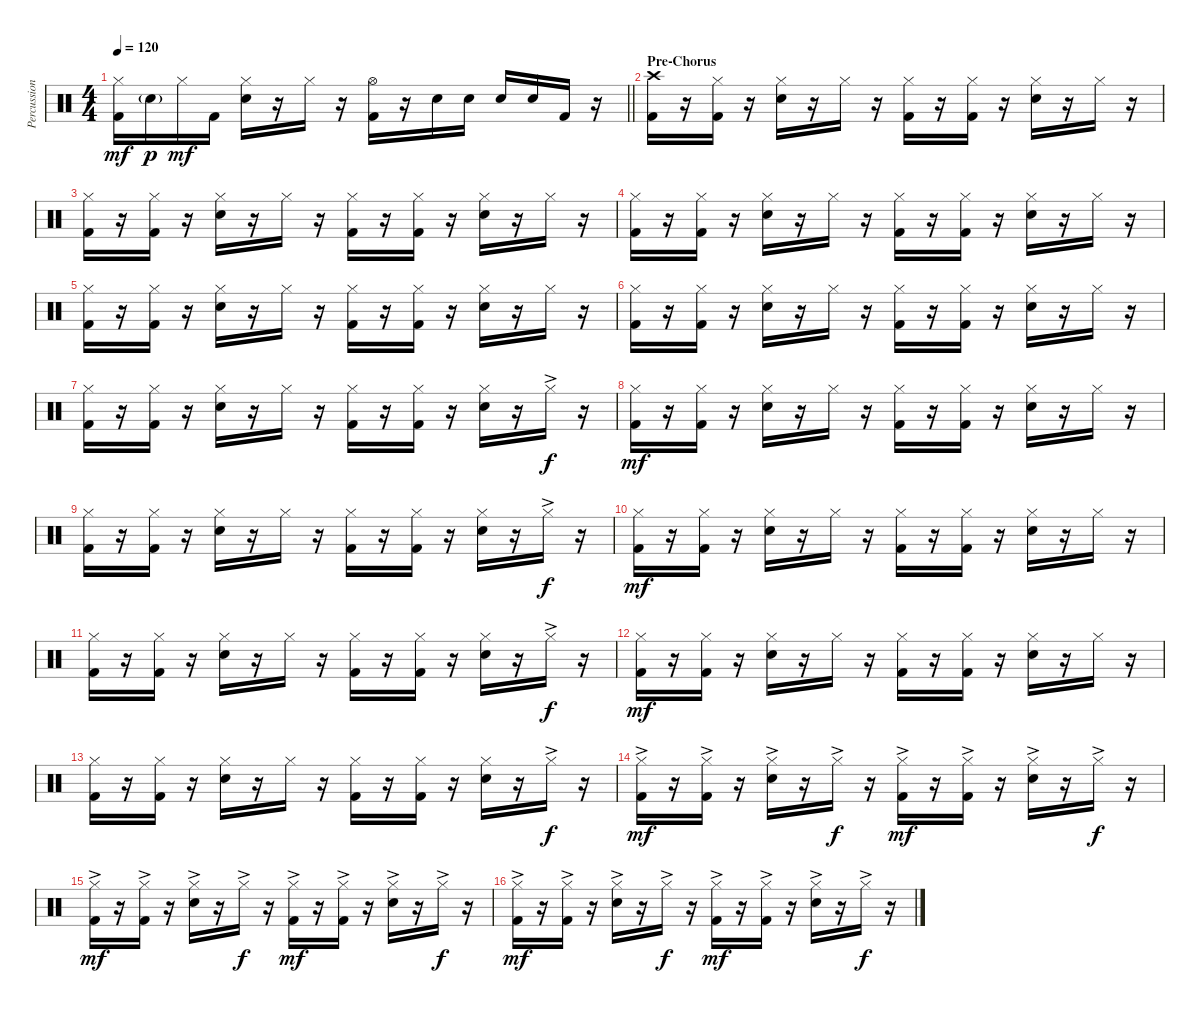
\track ("Percussion" "Percussion") {instrument percussion}
\staff {score}
\articulation defaults
\ts (4 4)
\tempo 120
\clef neutral
\barLineRight lightlight
\ks c
("Hi-Hat (closed)" "Kick (hit) 2").16{dy mf} "Electric Snare (hit)"{g}.16{dy p} "Hi-Hat (closed)".16{dy mf} "Kick (hit) 2".16 ("Hi-Hat (closed)" "Electric Snare (hit)").16 r.16 "Hi-Hat (closed)".16 r.16 ("Hi-Hat (open)" "Kick (hit) 2").16 r.16 "Electric Snare (hit)".16 "Electric Snare (hit)".16 "Electric Snare (hit)".16 "Electric Snare (hit)".16 "Kick (hit) 2".16 r.16 |
\section ("" "Pre-Chorus")
("Crash high (hit)" "Kick (hit) 2").16 r.16 ("Hi-Hat (closed)" "Kick (hit) 2").16 r.16 ("Hi-Hat (closed)" "Electric Snare (hit)").16 r.16 "Hi-Hat (closed)".16 r.16 ("Hi-Hat (closed)" "Kick (hit) 2").16 r.16 ("Hi-Hat (closed)" "Kick (hit) 2").16 r.16 ("Hi-Hat (closed)" "Electric Snare (hit)").16 r.16 "Hi-Hat (closed)".16 r.16 |
("Hi-Hat (closed)" "Kick (hit) 2").16 r.16 ("Hi-Hat (closed)" "Kick (hit) 2").16 r.16 ("Hi-Hat (closed)" "Electric Snare (hit)").16 r.16 "Hi-Hat (closed)".16 r.16 ("Hi-Hat (closed)" "Kick (hit) 2").16 r.16 ("Hi-Hat (closed)" "Kick (hit) 2").16 r.16 ("Hi-Hat (closed)" "Electric Snare (hit)").16 r.16 "Hi-Hat (closed)".16 r.16 |
("Hi-Hat (closed)" "Kick (hit) 2").16 r.16 ("Hi-Hat (closed)" "Kick (hit) 2").16 r.16 ("Hi-Hat (closed)" "Electric Snare (hit)").16 r.16 "Hi-Hat (closed)".16 r.16 ("Hi-Hat (closed)" "Kick (hit) 2").16 r.16 ("Hi-Hat (closed)" "Kick (hit) 2").16 r.16 ("Hi-Hat (closed)" "Electric Snare (hit)").16 r.16 "Hi-Hat (closed)".16 r.16 |
("Hi-Hat (closed)" "Kick (hit) 2").16 r.16 ("Hi-Hat (closed)" "Kick (hit) 2").16 r.16 ("Hi-Hat (closed)" "Electric Snare (hit)").16 r.16 "Hi-Hat (closed)".16 r.16 ("Hi-Hat (closed)" "Kick (hit) 2").16 r.16 ("Hi-Hat (closed)" "Kick (hit) 2").16 r.16 ("Hi-Hat (closed)" "Electric Snare (hit)").16 r.16 "Hi-Hat (closed)".16 r.16 |
("Hi-Hat (closed)" "Kick (hit) 2").16 r.16 ("Hi-Hat (closed)" "Kick (hit) 2").16 r.16 ("Hi-Hat (closed)" "Electric Snare (hit)").16 r.16 "Hi-Hat (closed)".16 r.16 ("Hi-Hat (closed)" "Kick (hit) 2").16 r.16 ("Hi-Hat (closed)" "Kick (hit) 2").16 r.16 ("Hi-Hat (closed)" "Electric Snare (hit)").16 r.16 "Hi-Hat (closed)".16 r.16 |
("Hi-Hat (closed)" "Kick (hit) 2").16 r.16 ("Hi-Hat (closed)" "Kick (hit) 2").16 r.16 ("Hi-Hat (closed)" "Electric Snare (hit)").16 r.16 "Hi-Hat (closed)".16 r.16 ("Hi-Hat (closed)" "Kick (hit) 2").16 r.16 ("Hi-Hat (closed)" "Kick (hit) 2").16 r.16 ("Hi-Hat (closed)" "Electric Snare (hit)").16 r.16 "Hi-Hat (closed)"{ac}.16{dy f} r.16 |
("Hi-Hat (closed)" "Kick (hit) 2").16{dy mf} r.16 ("Hi-Hat (closed)" "Kick (hit) 2").16 r.16 ("Hi-Hat (closed)" "Electric Snare (hit)").16 r.16 "Hi-Hat (closed)".16 r.16 ("Hi-Hat (closed)" "Kick (hit) 2").16 r.16 ("Hi-Hat (closed)" "Kick (hit) 2").16 r.16 ("Hi-Hat (closed)" "Electric Snare (hit)").16 r.16 "Hi-Hat (closed)".16 r.16 |
("Hi-Hat (closed)" "Kick (hit) 2").16 r.16 ("Hi-Hat (closed)" "Kick (hit) 2").16 r.16 ("Hi-Hat (closed)" "Electric Snare (hit)").16 r.16 "Hi-Hat (closed)".16 r.16 ("Hi-Hat (closed)" "Kick (hit) 2").16 r.16 ("Hi-Hat (closed)" "Kick (hit) 2").16 r.16 ("Hi-Hat (closed)" "Electric Snare (hit)").16 r.16 "Hi-Hat (closed)"{ac}.16{dy f} r.16 |
("Hi-Hat (closed)" "Kick (hit) 2").16{dy mf} r.16 ("Hi-Hat (closed)" "Kick (hit) 2").16 r.16 ("Hi-Hat (closed)" "Electric Snare (hit)").16 r.16 "Hi-Hat (closed)".16 r.16 ("Hi-Hat (closed)" "Kick (hit) 2").16 r.16 ("Hi-Hat (closed)" "Kick (hit) 2").16 r.16 ("Hi-Hat (closed)" "Electric Snare (hit)").16 r.16 "Hi-Hat (closed)".16 r.16 |
("Hi-Hat (closed)" "Kick (hit) 2").16 r.16 ("Hi-Hat (closed)" "Kick (hit) 2").16 r.16 ("Hi-Hat (closed)" "Electric Snare (hit)").16 r.16 "Hi-Hat (closed)".16 r.16 ("Hi-Hat (closed)" "Kick (hit) 2").16 r.16 ("Hi-Hat (closed)" "Kick (hit) 2").16 r.16 ("Hi-Hat (closed)" "Electric Snare (hit)").16 r.16 "Hi-Hat (closed)"{ac}.16{dy f} r.16 |
("Hi-Hat (closed)" "Kick (hit) 2").16{dy mf} r.16 ("Hi-Hat (closed)" "Kick (hit) 2").16 r.16 ("Hi-Hat (closed)" "Electric Snare (hit)").16 r.16 "Hi-Hat (closed)".16 r.16 ("Hi-Hat (closed)" "Kick (hit) 2").16 r.16 ("Hi-Hat (closed)" "Kick (hit) 2").16 r.16 ("Hi-Hat (closed)" "Electric Snare (hit)").16 r.16 "Hi-Hat (closed)".16 r.16 |
("Hi-Hat (closed)" "Kick (hit) 2").16 r.16 ("Hi-Hat (closed)" "Kick (hit) 2").16 r.16 ("Hi-Hat (closed)" "Electric Snare (hit)").16 r.16 "Hi-Hat (closed)".16 r.16 ("Hi-Hat (closed)" "Kick (hit) 2").16 r.16 ("Hi-Hat (closed)" "Kick (hit) 2").16 r.16 ("Hi-Hat (closed)" "Electric Snare (hit)").16 r.16 "Hi-Hat (closed)"{ac}.16{dy f} r.16 |
("Hi-Hat (closed)"{ac} "Kick (hit) 2").16{dy mf} r.16 ("Hi-Hat (closed)"{ac} "Kick (hit) 2").16 r.16 ("Hi-Hat (closed)"{ac} "Electric Snare (hit)").16 r.16 "Hi-Hat (closed)"{ac}.16{dy f} r.16 ("Hi-Hat (closed)"{ac} "Kick (hit) 2").16{dy mf} r.16 ("Hi-Hat (closed)"{ac} "Kick (hit) 2").16 r.16 ("Hi-Hat (closed)"{ac} "Electric Snare (hit)").16 r.16 "Hi-Hat (closed)"{ac}.16{dy f} r.16 |
("Hi-Hat (closed)"{ac} "Kick (hit) 2").16{dy mf} r.16 ("Hi-Hat (closed)"{ac} "Kick (hit) 2").16 r.16 ("Hi-Hat (closed)"{ac} "Electric Snare (hit)").16 r.16 "Hi-Hat (closed)"{ac}.16{dy f} r.16 ("Hi-Hat (closed)"{ac} "Kick (hit) 2").16{dy mf} r.16 ("Hi-Hat (closed)"{ac} "Kick (hit) 2").16 r.16 ("Hi-Hat (closed)"{ac} "Electric Snare (hit)").16 r.16 "Hi-Hat (closed)"{ac}.16{dy f} r.16 |
("Hi-Hat (closed)"{ac} "Kick (hit) 2").16{dy mf} r.16 ("Hi-Hat (closed)"{ac} "Kick (hit) 2").16 r.16 ("Hi-Hat (closed)"{ac} "Electric Snare (hit)").16 r.16 "Hi-Hat (closed)"{ac}.16{dy f} r.16 ("Hi-Hat (closed)"{ac} "Kick (hit) 2").16{dy mf} r.16 ("Hi-Hat (closed)"{ac} "Kick (hit) 2").16 r.16 ("Hi-Hat (closed)"{ac} "Electric Snare (hit)").16 r.16 "Hi-Hat (closed)"{ac}.16{dy f} r.16
